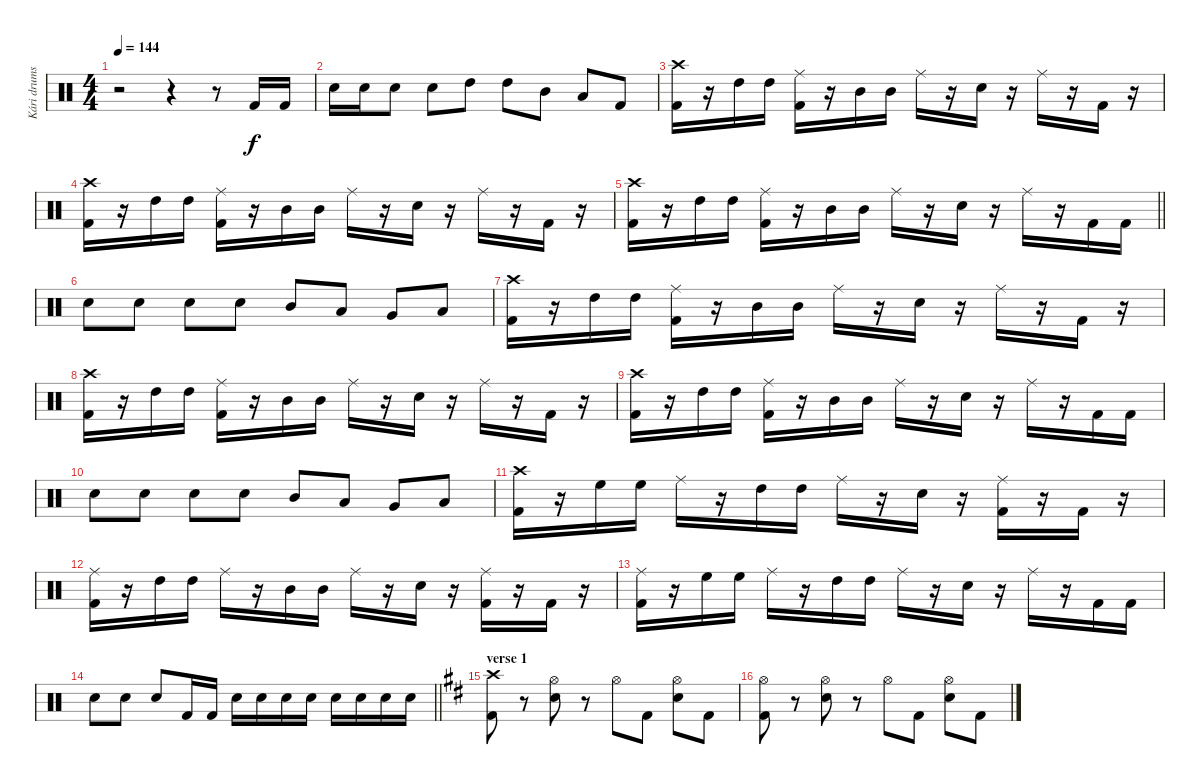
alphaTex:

\track ("Kári drums" "Kári drums") {instrument percussion}
\staff {score}
\articulation defaults
\ts (4 4)
\section ("" "")
\tempo 144
\clef neutral
\ks c
r.2{dy f} r.4 r.8 "Kick (hit) 2".16 "Kick (hit) 2".16 |
"Snare (hit) 2".16 "Snare (hit) 2".16 "Snare (hit) 2".8 "Snare (hit) 2".8 "High Tom (hit)".8 "High Tom (hit)".8 "Mid Tom (hit)".8 "Low Tom (hit)".8 "Kick (hit) 2".8 |
("Crash high (hit)" "Kick (hit) 2").16 r.16 "High Tom (hit)".16 "High Tom (hit)".16 ("Ride (middle)" "Kick (hit) 2").16 r.16 "Mid Tom (hit)".16 "Mid Tom (hit)".16 "Ride (middle)".16 r.16 "Snare (hit) 2".16 r.16 "Ride (middle)".16 r.16 "Kick (hit) 2".16 r.16 |
("Crash high (hit)" "Kick (hit) 2").16 r.16 "High Tom (hit)".16 "High Tom (hit)".16 ("Ride (middle)" "Kick (hit) 2").16 r.16 "Mid Tom (hit)".16 "Mid Tom (hit)".16 "Ride (middle)".16 r.16 "Snare (hit) 2".16 r.16 "Ride (middle)".16 r.16 "Kick (hit) 2".16 r.16 |
\barLineRight lightlight
("Crash high (hit)" "Kick (hit) 2").16 r.16 "High Tom (hit)".16 "High Tom (hit)".16 ("Ride (middle)" "Kick (hit) 2").16 r.16 "Mid Tom (hit)".16 "Mid Tom (hit)".16 "Ride (middle)".16 r.16 "Snare (hit) 2".16 r.16 "Ride (middle)".16 r.16 "Kick (hit) 2".16 "Kick (hit) 2".16 |
"Snare (hit) 2".8 "Snare (hit) 2".8 "Snare (hit) 2".8 "Snare (hit) 2".8 "Mid Tom (hit)".8 "Low Tom (hit)".8 "Very Low Tom (hit)".8 "Low Floor Tom (hit)".8 |
("Crash high (hit)" "Kick (hit) 2").16 r.16 "High Tom (hit)".16 "High Tom (hit)".16 ("Ride (middle)" "Kick (hit) 2").16 r.16 "Mid Tom (hit)".16 "Mid Tom (hit)".16 "Ride (middle)".16 r.16 "Snare (hit) 2".16 r.16 "Ride (middle)".16 r.16 "Kick (hit) 2".16 r.16 |
("Crash high (hit)" "Kick (hit) 2").16 r.16 "High Tom (hit)".16 "High Tom (hit)".16 ("Ride (middle)" "Kick (hit) 2").16 r.16 "Mid Tom (hit)".16 "Mid Tom (hit)".16 "Ride (middle)".16 r.16 "Snare (hit) 2".16 r.16 "Ride (middle)".16 r.16 "Kick (hit) 2".16 r.16 |
("Crash high (hit)" "Kick (hit) 2").16 r.16 "High Tom (hit)".16 "High Tom (hit)".16 ("Ride (middle)" "Kick (hit) 2").16 r.16 "Mid Tom (hit)".16 "Mid Tom (hit)".16 "Ride (middle)".16 r.16 "Snare (hit) 2".16 r.16 "Ride (middle)".16 r.16 "Kick (hit) 2".16 "Kick (hit) 2".16 |
"Snare (hit) 2".8 "Snare (hit) 2".8 "Snare (hit) 2".8 "Snare (hit) 2".8 "Mid Tom (hit)".8 "Low Tom (hit)".8 "Very Low Tom (hit)".8 "Low Floor Tom (hit)".8 |
("Crash high (hit)" "Kick (hit) 2").16 r.16 "High Floor Tom (hit)".16 "High Floor Tom (hit)".16 "Ride (middle)".16 r.16 "High Tom (hit)".16 "High Tom (hit)".16 "Ride (middle)".16 r.16 "Snare (hit) 2".16 r.16 ("Ride (middle)" "Kick (hit) 2").16 r.16 "Kick (hit) 2".16 r.16 |
("Ride (middle)" "Kick (hit) 2").16 r.16 "High Tom (hit)".16 "High Tom (hit)".16 "Ride (middle)".16 r.16 "Mid Tom (hit)".16 "Mid Tom (hit)".16 "Ride (middle)".16 r.16 "Snare (hit) 2".16 r.16 ("Ride (middle)" "Kick (hit) 2").16 r.16 "Kick (hit) 2".16 r.16 |
("Ride (middle)" "Kick (hit) 2").16 r.16 "High Floor Tom (hit)".16 "High Floor Tom (hit)".16 "Ride (middle)".16 r.16 "High Tom (hit)".16 "High Tom (hit)".16 "Ride (middle)".16 r.16 "Snare (hit) 2".16 r.16 "Ride (middle)".16 r.16 "Kick (hit) 2".16 "Kick (hit) 2".16 |
\barLineRight lightlight "Snare (hit) 2".8 "Snare (hit) 2".8 "Snare (hit) 2".8 "Kick (hit) 2".16 "Kick (hit) 2".16 "Snare (hit) 2".16 "Snare (hit) 2".16 "Snare (hit) 2".16 "Snare (hit) 2".16 "Snare (hit) 2".16 "Snare (hit) 2".16 "Snare (hit) 2".16 "Snare (hit) 2".16
|
\section ("" "verse 1")
\ks bminor
("Crash high (hit)" "Kick (hit) 2").8 r.8 ("Hi-Hat (open)" "Snare (hit) 2").8 r.8 "Hi-Hat (open)".8 "Kick (hit) 2".8 ("Hi-Hat (open)" "Snare (hit) 2").8 "Kick (hit) 2".8 |
("Hi-Hat (open)" "Kick (hit) 2").8 r.8 ("Hi-Hat (open)" "Snare (hit) 2").8 r.8 "Hi-Hat (open)".8 "Kick (hit) 2".8 ("Hi-Hat (open)" "Snare (hit) 2").8 "Kick (hit) 2".8
